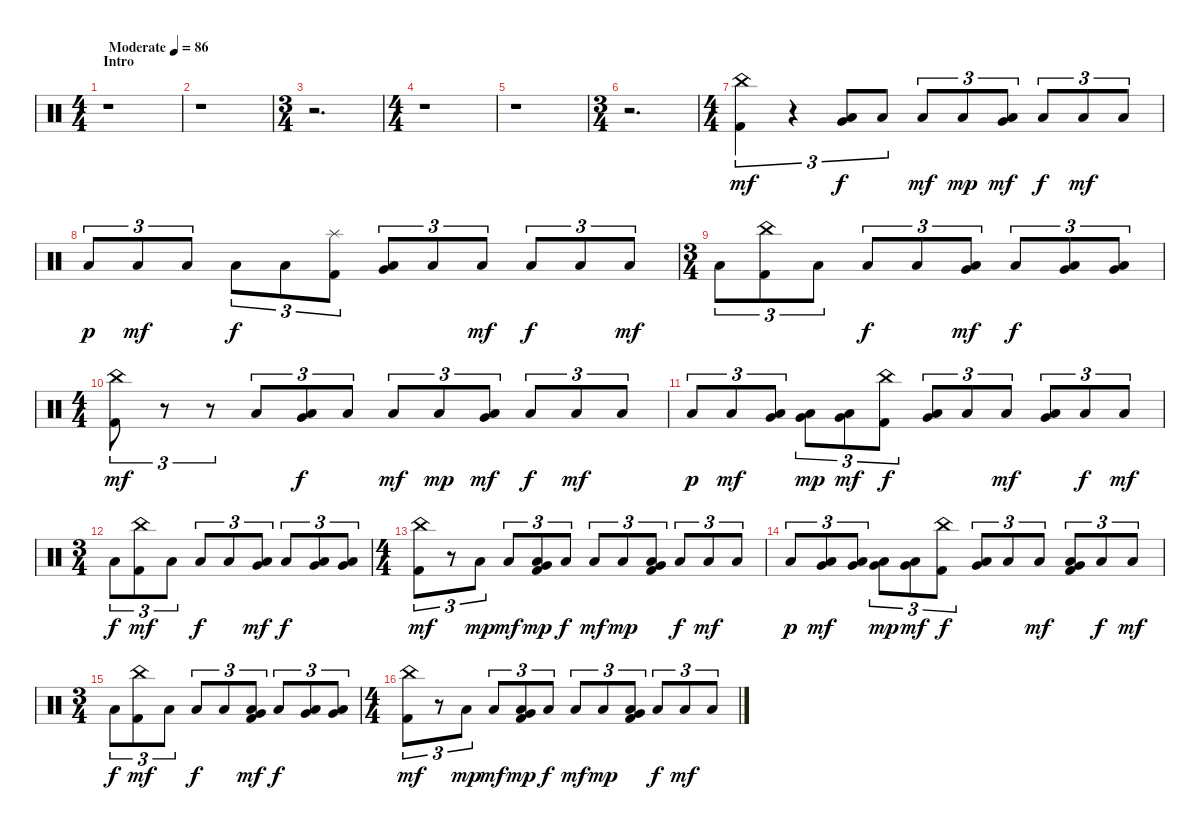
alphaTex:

\track "" {instrument percussion}
\staff {score}
\articulation defaults
\ts (4 4)
\section ("" "Intro")
\tempo (86 "Moderate")
\clef neutral
\ks c
r.1{dy mf volume 7} |
r.1 |
\ts (3 4)
r.2{d} |
\ts (4 4)
r.1 |
r.1 |
\ts (3 4)
r.2{d} |
\ts (4 4)
("China (hit)" "Kick (hit) 2").4{tu (3 2)} r.4{tu (3 2)} ("Very Low Tom (hit)" "Low Floor Tom (hit)").8{tu (3 2) dy f} "Low Floor Tom (hit)".8{tu (3 2)} "Low Floor Tom (hit)".8{tu (3 2) dy mf} "Low Floor Tom (hit)".8{tu (3 2) dy mp} ("Very Low Tom (hit)" "Low Floor Tom (hit)").8{tu (3 2) dy mf} "Low Floor Tom (hit)".8{tu (3 2) dy f} "Low Floor Tom (hit)".8{tu (3 2) dy mf} "Low Floor Tom (hit)".8{tu (3 2)} |
"Low Floor Tom (hit)".8{tu (3 2) dy p} "Low Floor Tom (hit)".8{tu (3 2) dy mf} "Low Floor Tom (hit)".8{tu (3 2)} "Low Floor Tom (hit)".8{tu (3 2) dy f} "Low Floor Tom (hit)".8{tu (3 2)} ("Splash (hit)" "Kick (hit) 2").8{tu (3 2)} ("Very Low Tom (hit)" "Low Floor Tom (hit)").8{tu (3 2)} "Low Floor Tom (hit)".8{tu (3 2)} "Low Floor Tom (hit)".8{tu (3 2) dy mf} "Low Floor Tom (hit)".8{tu (3 2) dy f} "Low Floor Tom (hit)".8{tu (3 2)} "Low Floor Tom (hit)".8{tu (3 2) dy mf} |
\ts (3 4)
"Low Floor Tom (hit)".8{tu (3 2)} ("China (hit)" "Kick (hit) 2").8{tu (3 2)} "Low Floor Tom (hit)".8{tu (3 2)} "Low Floor Tom (hit)".8{tu (3 2) dy f} "Low Floor Tom (hit)".8{tu (3 2)} ("Very Low Tom (hit)" "Low Floor Tom (hit)").8{tu (3 2) dy mf} "Low Floor Tom (hit)".8{tu (3 2) dy f} ("Very Low Tom (hit)" "Low Floor Tom (hit)").8{tu (3 2)} ("Very Low Tom (hit)" "Low Floor Tom (hit)").8{tu (3 2)} |
\ts (4 4)
("China (hit)" "Kick (hit) 2").8{tu (3 2) dy mf} r.8{tu (3 2)} r.8{tu (3 2)} "Low Floor Tom (hit)".8{tu (3 2)} ("Very Low Tom (hit)" "Low Floor Tom (hit)").8{tu (3 2) dy f} "Low Floor Tom (hit)".8{tu (3 2)} "Low Floor Tom (hit)".8{tu (3 2) dy mf} "Low Floor Tom (hit)".8{tu (3 2) dy mp} ("Very Low Tom (hit)" "Low Floor Tom (hit)").8{tu (3 2) dy mf} "Low Floor Tom (hit)".8{tu (3 2) dy f} "Low Floor Tom (hit)".8{tu (3 2) dy mf} "Low Floor Tom (hit)".8{tu (3 2)} |
"Low Floor Tom (hit)".8{tu (3 2) dy p} "Low Floor Tom (hit)".8{tu (3 2) dy mf} ("Very Low Tom (hit)" "Low Floor Tom (hit)").8{tu (3 2)} ("Very Low Tom (hit)" "Low Floor Tom (hit)").8{tu (3 2) dy mp} ("Very Low Tom (hit)" "Low Floor Tom (hit)").8{tu (3 2) dy mf} ("China (hit)" "Kick (hit) 2").8{tu (3 2) dy f} ("Very Low Tom (hit)" "Low Floor Tom (hit)").8{tu (3 2)} "Low Floor Tom (hit)".8{tu (3 2)} "Low Floor Tom (hit)".8{tu (3 2) dy mf} ("Very Low Tom (hit)" "Low Floor Tom (hit)").8{tu (3 2)} "Low Floor Tom (hit)".8{tu (3 2) dy f} "Low Floor Tom (hit)".8{tu (3 2) dy mf} |
\ts (3 4)
"Low Floor Tom (hit)".8{tu (3 2) dy f} ("China (hit)" "Kick (hit) 2").8{tu (3 2) dy mf} "Low Floor Tom (hit)".8{tu (3 2)} "Low Floor Tom (hit)".8{tu (3 2) dy f} "Low Floor Tom (hit)".8{tu (3 2)} ("Very Low Tom (hit)" "Low Floor Tom (hit)").8{tu (3 2) dy mf} "Low Floor Tom (hit)".8{tu (3 2) dy f} ("Very Low Tom (hit)" "Low Floor Tom (hit)").8{tu (3 2)} ("Very Low Tom (hit)" "Low Floor Tom (hit)").8{tu (3 2)} |
\ts (4 4)
("China (hit)" "Kick (hit) 2").8{tu (3 2) dy mf volume 8} r.8{tu (3 2)} "Low Floor Tom (hit)".8{tu (3 2) dy mp} "Low Floor Tom (hit)".8{tu (3 2) dy mf} ("Very Low Tom (hit)" "Low Floor Tom (hit)" "Kick (hit) 2").8{tu (3 2) dy mp} "Low Floor Tom (hit)".8{tu (3 2) dy f} "Low Floor Tom (hit)".8{tu (3 2) dy mf} "Low Floor Tom (hit)".8{tu (3 2) dy mp} ("Very Low Tom (hit)" "Low Floor Tom (hit)" "Kick (hit) 2").8{tu (3 2)} "Low Floor Tom (hit)".8{tu (3 2) dy f} "Low Floor Tom (hit)".8{tu (3 2) dy mf} "Low Floor Tom (hit)".8{tu (3 2)} |
"Low Floor Tom (hit)".8{tu (3 2) dy p} ("Very Low Tom (hit)" "Low Floor Tom (hit)").8{tu (3 2) dy mf} ("Very Low Tom (hit)" "Low Floor Tom (hit)").8{tu (3 2)} ("Very Low Tom (hit)" "Low Floor Tom (hit)").8{tu (3 2) dy mp} ("Very Low Tom (hit)" "Low Floor Tom (hit)").8{tu (3 2) dy mf} ("China (hit)" "Kick (hit) 2").8{tu (3 2) dy f} ("Very Low Tom (hit)" "Low Floor Tom (hit)").8{tu (3 2)} "Low Floor Tom (hit)".8{tu (3 2)} "Low Floor Tom (hit)".8{tu (3 2) dy mf} ("Very Low Tom (hit)" "Low Floor Tom (hit)" "Kick (hit) 2").8{tu (3 2)} "Low Floor Tom (hit)".8{tu (3 2) dy f} "Low Floor Tom (hit)".8{tu (3 2) dy mf} |
\ts (3 4)
"Low Floor Tom (hit)".8{tu (3 2) dy f} ("China (hit)" "Kick (hit) 2").8{tu (3 2) dy mf} "Low Floor Tom (hit)".8{tu (3 2)} "Low Floor Tom (hit)".8{tu (3 2) dy f} "Low Floor Tom (hit)".8{tu (3 2)} ("Very Low Tom (hit)" "Low Floor Tom (hit)" "Kick (hit) 2").8{tu (3 2) dy mf} "Low Floor Tom (hit)".8{tu (3 2) dy f} ("Very Low Tom (hit)" "Low Floor Tom (hit)").8{tu (3 2)} ("Very Low Tom (hit)" "Low Floor Tom (hit)").8{tu (3 2)} |
\ts (4 4)
("China (hit)" "Kick (hit) 2").8{tu (3 2) dy mf} r.8{tu (3 2)} "Low Floor Tom (hit)".8{tu (3 2) dy mp} "Low Floor Tom (hit)".8{tu (3 2) dy mf} ("Very Low Tom (hit)" "Low Floor Tom (hit)" "Kick (hit) 2").8{tu (3 2) dy mp} "Low Floor Tom (hit)".8{tu (3 2) dy f} "Low Floor Tom (hit)".8{tu (3 2) dy mf} "Low Floor Tom (hit)".8{tu (3 2) dy mp} ("Very Low Tom (hit)" "Low Floor Tom (hit)" "Kick (hit) 2").8{tu (3 2)} "Low Floor Tom (hit)".8{tu (3 2) dy f} "Low Floor Tom (hit)".8{tu (3 2) dy mf} "Low Floor Tom (hit)".8{tu (3 2)}
